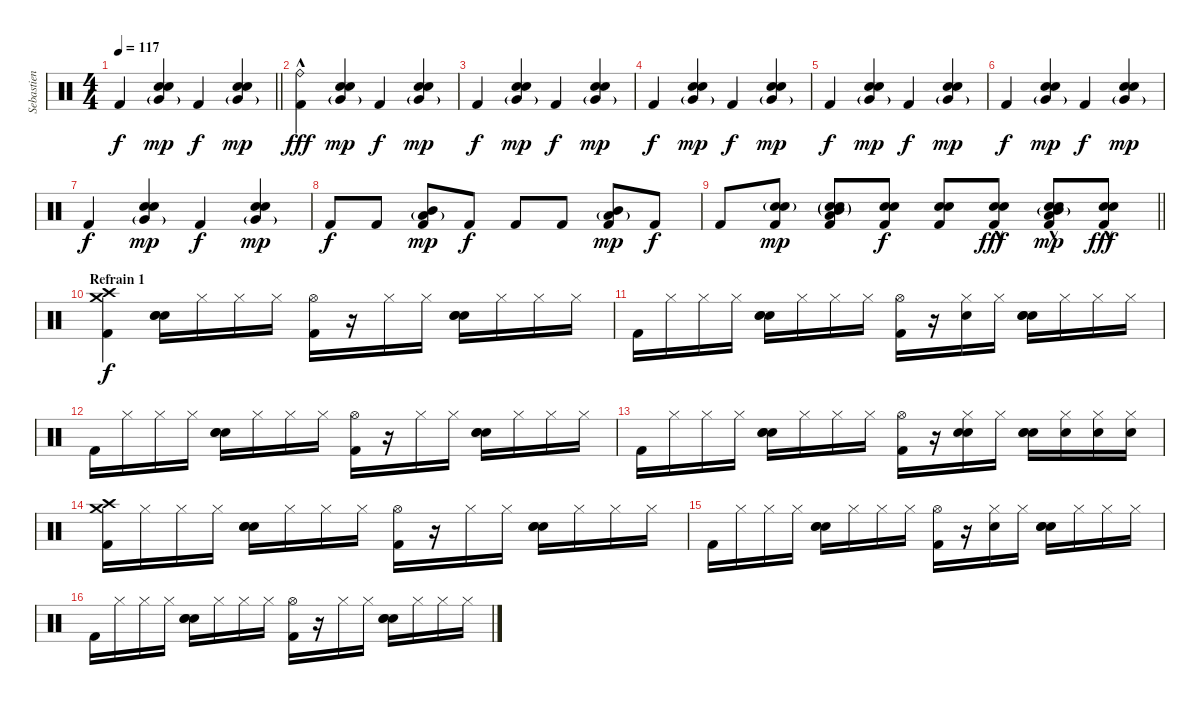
\track ("Sebastien Grainger Drums" "Sebastien ") {instrument percussion}
\staff {score}
\articulation defaults
\ts (4 4)
\tempo 117
\clef neutral
\barLineRight lightlight
\ks c "Kick (hit) 2".4{dy f}
("Very Low Tom (hit)"{g} "Electric Snare (hit)" "Snare (hit) 2").4{dy mp} "Kick (hit) 2".4{dy f} ("Very Low Tom (hit)"{g} "Electric Snare (hit)" "Snare (hit) 2").4{dy mp} |
("Ride (bell)"{hac} "Kick (hit) 2").4{dy fff} ("Very Low Tom (hit)"{g} "Electric Snare (hit)" "Snare (hit) 2").4{dy mp} "Kick (hit) 2".4{dy f} ("Very Low Tom (hit)"{g} "Electric Snare (hit)" "Snare (hit) 2").4{dy mp} |
"Kick (hit) 2".4{dy f} ("Very Low Tom (hit)"{g} "Electric Snare (hit)" "Snare (hit) 2").4{dy mp} "Kick (hit) 2".4{dy f} ("Very Low Tom (hit)"{g} "Electric Snare (hit)" "Snare (hit) 2").4{dy mp} |
"Kick (hit) 2".4{dy f} ("Very Low Tom (hit)"{g} "Electric Snare (hit)" "Snare (hit) 2").4{dy mp} "Kick (hit) 2".4{dy f} ("Very Low Tom (hit)"{g} "Electric Snare (hit)" "Snare (hit) 2").4{dy mp} |
"Kick (hit) 2".4{dy f} ("Very Low Tom (hit)"{g} "Electric Snare (hit)" "Snare (hit) 2").4{dy mp} "Kick (hit) 2".4{dy f} ("Very Low Tom (hit)"{g} "Electric Snare (hit)" "Snare (hit) 2").4{dy mp} |
"Kick (hit) 2".4{dy f} ("Very Low Tom (hit)"{g} "Electric Snare (hit)" "Snare (hit) 2").4{dy mp} "Kick (hit) 2".4{dy f} ("Very Low Tom (hit)"{g} "Electric Snare (hit)" "Snare (hit) 2").4{dy mp} |
"Kick (hit) 2".4{dy f} ("Very Low Tom (hit)"{g} "Electric Snare (hit)" "Snare (hit) 2").4{dy mp} "Kick (hit) 2".4{dy f} ("Very Low Tom (hit)"{g} "Electric Snare (hit)" "Snare (hit) 2").4{dy mp} |
"Kick (hit) 2".8{dy f} "Kick (hit) 2".8 ("Low Tom (hit)"{g} "Mid Tom (hit)" "Kick (hit) 2").8{dy mp} "Kick (hit) 2".8{dy f} "Kick (hit) 2".8 "Kick (hit) 2".8 ("Low Tom (hit)"{g} "Mid Tom (hit)" "Kick (hit) 2").8{dy mp} "Kick (hit) 2".8{dy f} |
\barLineRight lightlight "Kick (hit) 2".8
("Electric Snare (hit)"{g} "Snare (hit) 2"{g} "Kick (hit) 2").8{dy mp} ("Electric Snare (hit)"{g} "Snare (hit) 2"{g} "Mid Tom (hit)"{g} "Low Tom (hit)" "Kick (hit) 2").8 ("Electric Snare (hit)" "Snare (hit) 2" "Kick (hit) 2").8{dy f} ("Electric Snare (hit)" "Snare (hit) 2" "Kick (hit) 2").8 ("Electric Snare (hit)" "Snare (hit) 2"{hac} "Kick (hit) 2").8{dy fff} ("Electric Snare (hit)" "Snare (hit) 2"{hac} "Low Tom (hit)" "Mid Tom (hit)"{g} "Kick (hit) 2").8{dy mp} ("Electric Snare (hit)" "Snare (hit) 2"{hac} "Kick (hit) 2").8{dy fff} |
\section ("" "Refrain 1")
("Crash medium (hit)" "Crash high (hit)" "Kick (hit) 2").4{dy f} ("Hand Clap (hit)" "Snare (hit) 2" "Electric Snare (hit)").16 "Hi-Hat (closed)".16 "Hi-Hat (closed)".16 "Hi-Hat (closed)".16 ("Hi-Hat (open)" "Kick (hit) 2").16 r.16 "Hi-Hat (closed)".16 "Hi-Hat (closed)".16 ("Hand Clap (hit)" "Electric Snare (hit)" "Snare (hit) 2").16 "Hi-Hat (closed)".16 "Hi-Hat (closed)".16 "Hi-Hat (closed)".16 |
"Kick (hit) 2".16 "Hi-Hat (closed)".16 "Hi-Hat (closed)".16 "Hi-Hat (closed)".16 ("Hand Clap (hit)" "Electric Snare (hit)" "Snare (hit) 2").16 "Hi-Hat (closed)".16 "Hi-Hat (closed)".16 "Hi-Hat (closed)".16 ("Hi-Hat (open)" "Kick (hit) 2").16 r.16 ("Hand Clap (hit)" "Hi-Hat (closed)").16 "Hi-Hat (closed)".16 ("Hand Clap (hit)" "Electric Snare (hit)" "Snare (hit) 2").16 "Hi-Hat (closed)".16 "Hi-Hat (closed)".16 "Hi-Hat (closed)".16 |
"Kick (hit) 2".16 "Hi-Hat (closed)".16 "Hi-Hat (closed)".16 "Hi-Hat (closed)".16 ("Hand Clap (hit)" "Electric Snare (hit)" "Snare (hit) 2").16 "Hi-Hat (closed)".16 "Hi-Hat (closed)".16 "Hi-Hat (closed)".16 ("Hi-Hat (open)" "Kick (hit) 2").16 r.16 "Hi-Hat (closed)".16 "Hi-Hat (closed)".16 ("Hand Clap (hit)" "Electric Snare (hit)" "Snare (hit) 2").16 "Hi-Hat (closed)".16 "Hi-Hat (closed)".16 "Hi-Hat (closed)".16 |
"Kick (hit) 2".16 "Hi-Hat (closed)".16 "Hi-Hat (closed)".16 "Hi-Hat (closed)".16 ("Hand Clap (hit)" "Electric Snare (hit)" "Snare (hit) 2").16 "Hi-Hat (closed)".16 "Hi-Hat (closed)".16 "Hi-Hat (closed)".16 ("Hi-Hat (open)" "Kick (hit) 2").16 r.16 ("Hand Clap (hit)" "Hi-Hat (closed)" "Snare (hit) 2").16 "Hi-Hat (closed)".16 ("Hand Clap (hit)" "Electric Snare (hit)" "Snare (hit) 2").16 ("Hi-Hat (closed)" "Snare (hit) 2").16 ("Hi-Hat (closed)" "Snare (hit) 2").16 ("Hi-Hat (closed)" "Snare (hit) 2").16 |
("Crash high (hit)" "Crash medium (hit)" "Kick (hit) 2").16 "Hi-Hat (closed)".16 "Hi-Hat (closed)".16 "Hi-Hat (closed)".16 ("Hand Clap (hit)" "Electric Snare (hit)" "Snare (hit) 2").16 "Hi-Hat (closed)".16 "Hi-Hat (closed)".16 "Hi-Hat (closed)".16 ("Hi-Hat (open)" "Kick (hit) 2").16 r.16 "Hi-Hat (closed)".16 "Hi-Hat (closed)".16 ("Hand Clap (hit)" "Electric Snare (hit)" "Snare (hit) 2").16 "Hi-Hat (closed)".16 "Hi-Hat (closed)".16 "Hi-Hat (closed)".16 |
"Kick (hit) 2".16 "Hi-Hat (closed)".16 "Hi-Hat (closed)".16 "Hi-Hat (closed)".16 ("Hand Clap (hit)" "Electric Snare (hit)" "Snare (hit) 2").16 "Hi-Hat (closed)".16 "Hi-Hat (closed)".16 "Hi-Hat (closed)".16 ("Hi-Hat (open)" "Kick (hit) 2").16 r.16 ("Hand Clap (hit)" "Hi-Hat (closed)").16 "Hi-Hat (closed)".16 ("Hand Clap (hit)" "Electric Snare (hit)" "Snare (hit) 2").16 "Hi-Hat (closed)".16 "Hi-Hat (closed)".16 "Hi-Hat (closed)".16 |
"Kick (hit) 2".16 "Hi-Hat (closed)".16 "Hi-Hat (closed)".16 "Hi-Hat (closed)".16 ("Hand Clap (hit)" "Electric Snare (hit)" "Snare (hit) 2").16 "Hi-Hat (closed)".16 "Hi-Hat (closed)".16 "Hi-Hat (closed)".16 ("Hi-Hat (open)" "Kick (hit) 2").16 r.16 "Hi-Hat (closed)".16 "Hi-Hat (closed)".16 ("Hand Clap (hit)" "Electric Snare (hit)" "Snare (hit) 2").16 "Hi-Hat (closed)".16 "Hi-Hat (closed)".16 "Hi-Hat (closed)".16
